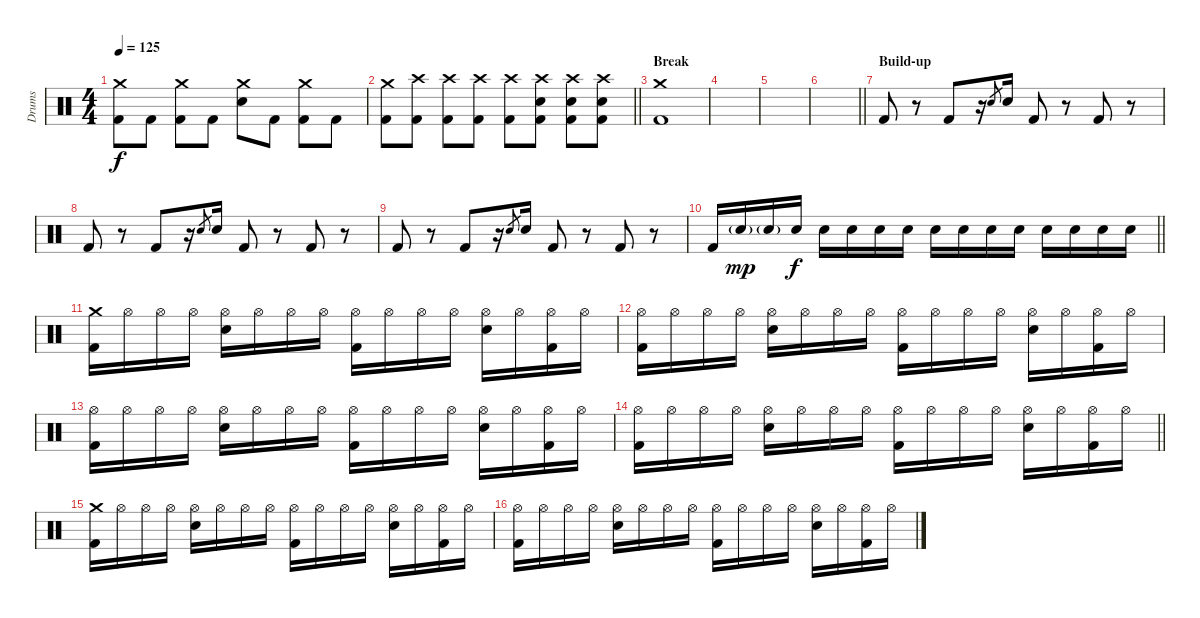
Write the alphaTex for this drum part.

\track ("Drums" "Drums") {instrument percussion}
\staff {score}
\articulation defaults
\ts (4 4)
\tempo 125
\clef neutral
\ks c
("Crash medium (hit)" "Kick (hit) 2").8{dy f} "Kick (hit) 2".8 ("Crash medium (hit)" "Kick (hit) 2").8 "Kick (hit) 2".8 ("Crash medium (hit)" "Snare (hit) 2").8 "Kick (hit) 2".8 ("Crash medium (hit)" "Kick (hit) 2").8 "Kick (hit) 2".8 |
\barLineRight lightlight
("Crash medium (hit)" "Kick (hit) 2").8 ("Crash high (hit)" "Kick (hit) 2").8 ("Crash high (hit)" "Kick (hit) 2").8 ("Crash high (hit)" "Kick (hit) 2").8 ("Crash high (hit)" "Kick (hit) 2").8 ("Crash high (hit)" "Snare (hit) 2" "Kick (hit) 2").8 ("Crash high (hit)" "Snare (hit) 2" "Kick (hit) 2").8 ("Crash high (hit)" "Snare (hit) 2" "Kick (hit) 2").8 |
\section ("" "Break")
("Crash medium (hit)" "Kick (hit) 2").1 |
|
|
\barLineRight lightlight
|
\section ("" "Build-up")
"Kick (hit) 2".8 r.8 "Kick (hit) 2".8 r.16 "Electric Snare (hit)".8{gr} "Electric Snare (hit)".16 "Kick (hit) 2".8 r.8 "Kick (hit) 2".8 r.8 |
"Kick (hit) 2".8 r.8 "Kick (hit) 2".8 r.16 "Electric Snare (hit)".8{gr} "Electric Snare (hit)".16 "Kick (hit) 2".8 r.8 "Kick (hit) 2".8 r.8 |
"Kick (hit) 2".8 r.8 "Kick (hit) 2".8 r.16 "Electric Snare (hit)".8{gr} "Electric Snare (hit)".16 "Kick (hit) 2".8 r.8 "Kick (hit) 2".8 r.8 |
\barLineRight lightlight "Kick (hit) 2".16 "Electric Snare (hit)"{g}.16{dy mp} "Electric Snare (hit)"{g}.16 "Electric Snare (hit)".16{dy f} "Electric Snare (hit)".16 "Electric Snare (hit)".16 "Electric Snare (hit)".16 "Electric Snare (hit)".16 "Electric Snare (hit)".16 "Electric Snare (hit)".16 "Electric Snare (hit)".16 "Electric Snare (hit)".16 "Electric Snare (hit)".16 "Electric Snare (hit)".16 "Electric Snare (hit)".16 "Electric Snare (hit)".16
|
\section ("" "")
("Crash medium (hit)" "Kick (hit) 2").16 "Hi-Hat (open)".16 "Hi-Hat (open)".16 "Hi-Hat (open)".16 ("Hi-Hat (open)" "Electric Snare (hit)").16 "Hi-Hat (open)".16 "Hi-Hat (open)".16 "Hi-Hat (open)".16 ("Hi-Hat (open)" "Kick (hit) 2").16 "Hi-Hat (open)".16 "Hi-Hat (open)".16 "Hi-Hat (open)".16 ("Hi-Hat (open)" "Electric Snare (hit)").16 "Hi-Hat (open)".16 ("Hi-Hat (open)" "Kick (hit) 2").16 "Hi-Hat (open)".16 |
("Hi-Hat (open)" "Kick (hit) 2").16 "Hi-Hat (open)".16 "Hi-Hat (open)".16 "Hi-Hat (open)".16 ("Hi-Hat (open)" "Electric Snare (hit)").16 "Hi-Hat (open)".16 "Hi-Hat (open)".16 "Hi-Hat (open)".16 ("Hi-Hat (open)" "Kick (hit) 2").16 "Hi-Hat (open)".16 "Hi-Hat (open)".16 "Hi-Hat (open)".16 ("Hi-Hat (open)" "Electric Snare (hit)").16 "Hi-Hat (open)".16 ("Hi-Hat (open)" "Kick (hit) 2").16 "Hi-Hat (open)".16 |
("Hi-Hat (open)" "Kick (hit) 2").16 "Hi-Hat (open)".16 "Hi-Hat (open)".16 "Hi-Hat (open)".16 ("Hi-Hat (open)" "Electric Snare (hit)").16 "Hi-Hat (open)".16 "Hi-Hat (open)".16 "Hi-Hat (open)".16 ("Hi-Hat (open)" "Kick (hit) 2").16 "Hi-Hat (open)".16 "Hi-Hat (open)".16 "Hi-Hat (open)".16 ("Hi-Hat (open)" "Electric Snare (hit)").16 "Hi-Hat (open)".16 ("Hi-Hat (open)" "Kick (hit) 2").16 "Hi-Hat (open)".16 |
\barLineRight lightlight
("Hi-Hat (open)" "Kick (hit) 2").16 "Hi-Hat (open)".16 "Hi-Hat (open)".16 "Hi-Hat (open)".16 ("Hi-Hat (open)" "Electric Snare (hit)").16 "Hi-Hat (open)".16 "Hi-Hat (open)".16 "Hi-Hat (open)".16 ("Hi-Hat (open)" "Kick (hit) 2").16 "Hi-Hat (open)".16 "Hi-Hat (open)".16 "Hi-Hat (open)".16 ("Hi-Hat (open)" "Electric Snare (hit)").16 "Hi-Hat (open)".16 ("Hi-Hat (open)" "Kick (hit) 2").16 "Hi-Hat (open)".16 |
("Crash medium (hit)" "Kick (hit) 2").16 "Hi-Hat (open)".16 "Hi-Hat (open)".16 "Hi-Hat (open)".16 ("Hi-Hat (open)" "Electric Snare (hit)").16 "Hi-Hat (open)".16 "Hi-Hat (open)".16 "Hi-Hat (open)".16 ("Hi-Hat (open)" "Kick (hit) 2").16 "Hi-Hat (open)".16 "Hi-Hat (open)".16 "Hi-Hat (open)".16 ("Hi-Hat (open)" "Electric Snare (hit)").16 "Hi-Hat (open)".16 ("Hi-Hat (open)" "Kick (hit) 2").16 "Hi-Hat (open)".16 |
("Hi-Hat (open)" "Kick (hit) 2").16 "Hi-Hat (open)".16 "Hi-Hat (open)".16 "Hi-Hat (open)".16 ("Hi-Hat (open)" "Electric Snare (hit)").16 "Hi-Hat (open)".16 "Hi-Hat (open)".16 "Hi-Hat (open)".16 ("Hi-Hat (open)" "Kick (hit) 2").16 "Hi-Hat (open)".16 "Hi-Hat (open)".16 "Hi-Hat (open)".16 ("Hi-Hat (open)" "Electric Snare (hit)").16 "Hi-Hat (open)".16 ("Hi-Hat (open)" "Kick (hit) 2").16 "Hi-Hat (open)".16
